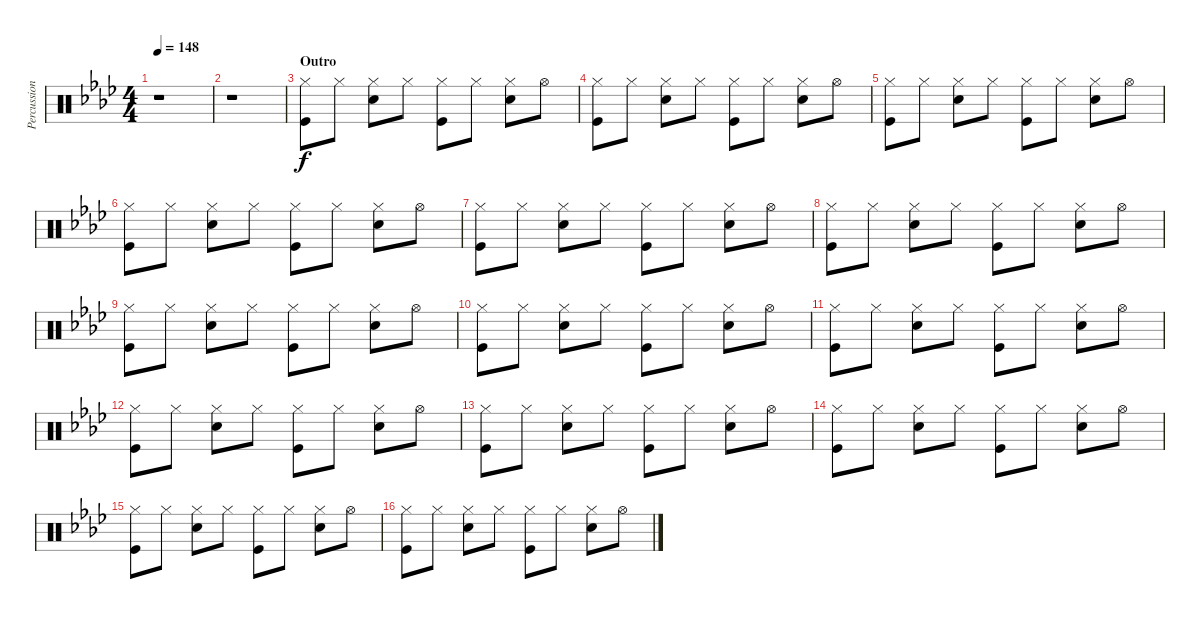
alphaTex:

\track ("Percussion" "Percussion") {instrument percussion}
\staff {score}
\articulation defaults
\ts (4 4)
\tempo 148
\clef neutral
\ks ab
r.1{dy f} |
r.1 |
\section ("" "Outro")
("Hi-Hat (closed)" "Kick (hit)").8 "Hi-Hat (closed)".8 ("Hi-Hat (closed)" "Snare (hit) 2").8 "Hi-Hat (closed)".8 ("Hi-Hat (closed)" "Kick (hit)").8 "Hi-Hat (closed)".8 ("Hi-Hat (closed)" "Snare (hit) 2").8 "Hi-Hat (open)".8 |
("Hi-Hat (closed)" "Kick (hit)").8 "Hi-Hat (closed)".8 ("Hi-Hat (closed)" "Snare (hit) 2").8 "Hi-Hat (closed)".8 ("Hi-Hat (closed)" "Kick (hit)").8 "Hi-Hat (closed)".8 ("Hi-Hat (closed)" "Snare (hit) 2").8 "Hi-Hat (open)".8 |
("Hi-Hat (closed)" "Kick (hit)").8 "Hi-Hat (closed)".8 ("Hi-Hat (closed)" "Snare (hit) 2").8 "Hi-Hat (closed)".8 ("Hi-Hat (closed)" "Kick (hit)").8 "Hi-Hat (closed)".8 ("Hi-Hat (closed)" "Snare (hit) 2").8 "Hi-Hat (open)".8 |
("Hi-Hat (closed)" "Kick (hit)").8 "Hi-Hat (closed)".8 ("Hi-Hat (closed)" "Snare (hit) 2").8 "Hi-Hat (closed)".8 ("Hi-Hat (closed)" "Kick (hit)").8 "Hi-Hat (closed)".8 ("Hi-Hat (closed)" "Snare (hit) 2").8 "Hi-Hat (open)".8 |
("Hi-Hat (closed)" "Kick (hit)").8 "Hi-Hat (closed)".8 ("Hi-Hat (closed)" "Snare (hit) 2").8 "Hi-Hat (closed)".8 ("Hi-Hat (closed)" "Kick (hit)").8 "Hi-Hat (closed)".8 ("Hi-Hat (closed)" "Snare (hit) 2").8 "Hi-Hat (open)".8 |
("Hi-Hat (closed)" "Kick (hit)").8 "Hi-Hat (closed)".8 ("Hi-Hat (closed)" "Snare (hit) 2").8 "Hi-Hat (closed)".8 ("Hi-Hat (closed)" "Kick (hit)").8 "Hi-Hat (closed)".8 ("Hi-Hat (closed)" "Snare (hit) 2").8 "Hi-Hat (open)".8 |
("Hi-Hat (closed)" "Kick (hit)").8 "Hi-Hat (closed)".8 ("Hi-Hat (closed)" "Snare (hit) 2").8 "Hi-Hat (closed)".8 ("Hi-Hat (closed)" "Kick (hit)").8 "Hi-Hat (closed)".8 ("Hi-Hat (closed)" "Snare (hit) 2").8 "Hi-Hat (open)".8 |
("Hi-Hat (closed)" "Kick (hit)").8 "Hi-Hat (closed)".8 ("Hi-Hat (closed)" "Snare (hit) 2").8 "Hi-Hat (closed)".8 ("Hi-Hat (closed)" "Kick (hit)").8 "Hi-Hat (closed)".8 ("Hi-Hat (closed)" "Snare (hit) 2").8 "Hi-Hat (open)".8 |
("Hi-Hat (closed)" "Kick (hit)").8 "Hi-Hat (closed)".8 ("Hi-Hat (closed)" "Snare (hit) 2").8 "Hi-Hat (closed)".8 ("Hi-Hat (closed)" "Kick (hit)").8 "Hi-Hat (closed)".8 ("Hi-Hat (closed)" "Snare (hit) 2").8 "Hi-Hat (open)".8 |
("Hi-Hat (closed)" "Kick (hit)").8 "Hi-Hat (closed)".8 ("Hi-Hat (closed)" "Snare (hit) 2").8 "Hi-Hat (closed)".8 ("Hi-Hat (closed)" "Kick (hit)").8 "Hi-Hat (closed)".8 ("Hi-Hat (closed)" "Snare (hit) 2").8 "Hi-Hat (open)".8 |
("Hi-Hat (closed)" "Kick (hit)").8 "Hi-Hat (closed)".8 ("Hi-Hat (closed)" "Snare (hit) 2").8 "Hi-Hat (closed)".8 ("Hi-Hat (closed)" "Kick (hit)").8 "Hi-Hat (closed)".8 ("Hi-Hat (closed)" "Snare (hit) 2").8 "Hi-Hat (open)".8 |
("Hi-Hat (closed)" "Kick (hit)").8 "Hi-Hat (closed)".8 ("Hi-Hat (closed)" "Snare (hit) 2").8 "Hi-Hat (closed)".8 ("Hi-Hat (closed)" "Kick (hit)").8 "Hi-Hat (closed)".8 ("Hi-Hat (closed)" "Snare (hit) 2").8 "Hi-Hat (open)".8 |
("Hi-Hat (closed)" "Kick (hit)").8 "Hi-Hat (closed)".8 ("Hi-Hat (closed)" "Snare (hit) 2").8 "Hi-Hat (closed)".8 ("Hi-Hat (closed)" "Kick (hit)").8 "Hi-Hat (closed)".8 ("Hi-Hat (closed)" "Snare (hit) 2").8 "Hi-Hat (open)".8 |
("Hi-Hat (closed)" "Kick (hit)").8 "Hi-Hat (closed)".8 ("Hi-Hat (closed)" "Snare (hit) 2").8 "Hi-Hat (closed)".8 ("Hi-Hat (closed)" "Kick (hit)").8 "Hi-Hat (closed)".8 ("Hi-Hat (closed)" "Snare (hit) 2").8 "Hi-Hat (open)".8
